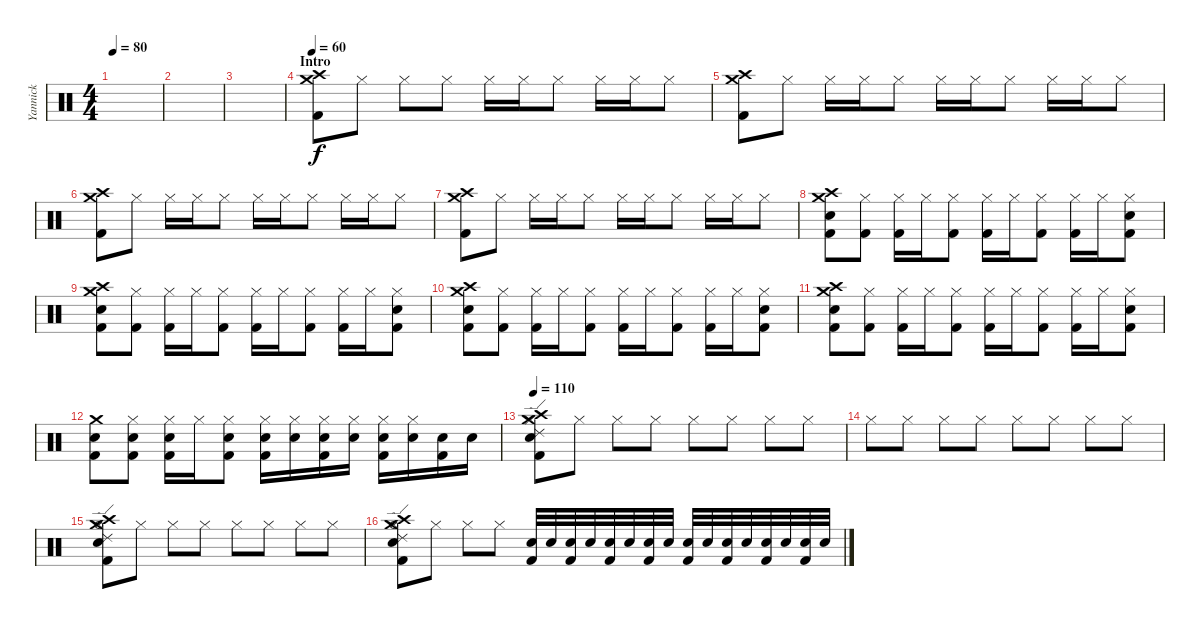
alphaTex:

\track ("Yannick" "Yannick") {instrument percussion}
\staff {score}
\articulation defaults
\ts (4 4)
\tempo 80
\clef neutral
\ks c
|
|
|
\section ("" "Intro")
\tempo 60
("Crash medium (hit)" "Crash high (hit)" "Kick (hit) 2").8 "Hi-Hat (closed)".8 "Hi-Hat (closed)".8 "Hi-Hat (closed)".8 "Hi-Hat (closed)".16 "Hi-Hat (closed)".16 "Hi-Hat (closed)".8 "Hi-Hat (closed)".16 "Hi-Hat (closed)".16 "Hi-Hat (closed)".8 |
("Crash medium (hit)" "Crash high (hit)" "Kick (hit) 2").8 "Hi-Hat (closed)".8 "Hi-Hat (closed)".16 "Hi-Hat (closed)".16 "Hi-Hat (closed)".8 "Hi-Hat (closed)".16 "Hi-Hat (closed)".16 "Hi-Hat (closed)".8 "Hi-Hat (closed)".16 "Hi-Hat (closed)".16 "Hi-Hat (closed)".8 |
("Crash medium (hit)" "Crash high (hit)" "Kick (hit) 2").8 "Hi-Hat (closed)".8 "Hi-Hat (closed)".16 "Hi-Hat (closed)".16 "Hi-Hat (closed)".8 "Hi-Hat (closed)".16 "Hi-Hat (closed)".16 "Hi-Hat (closed)".8 "Hi-Hat (closed)".16 "Hi-Hat (closed)".16 "Hi-Hat (closed)".8 |
("Crash medium (hit)" "Crash high (hit)" "Kick (hit) 2").8 "Hi-Hat (closed)".8 "Hi-Hat (closed)".16 "Hi-Hat (closed)".16 "Hi-Hat (closed)".8 "Hi-Hat (closed)".16 "Hi-Hat (closed)".16 "Hi-Hat (closed)".8 "Hi-Hat (closed)".16 "Hi-Hat (closed)".16 "Hi-Hat (closed)".8 |
("Crash medium (hit)" "Crash high (hit)" "Electric Snare (hit)" "Kick (hit) 2").8 ("Hi-Hat (closed)" "Kick (hit) 2").8 ("Hi-Hat (closed)" "Kick (hit) 2").16 "Hi-Hat (closed)".16 ("Hi-Hat (closed)" "Kick (hit) 2").8 ("Hi-Hat (closed)" "Kick (hit) 2").16 "Hi-Hat (closed)".16 ("Hi-Hat (closed)" "Kick (hit) 2").8 ("Hi-Hat (closed)" "Kick (hit) 2").16 "Hi-Hat (closed)".16 ("Hi-Hat (closed)" "Electric Snare (hit)" "Kick (hit) 2").8 |
("Crash medium (hit)" "Crash high (hit)" "Electric Snare (hit)" "Kick (hit) 2").8 ("Hi-Hat (closed)" "Kick (hit) 2").8 ("Hi-Hat (closed)" "Kick (hit) 2").16 "Hi-Hat (closed)".16 ("Hi-Hat (closed)" "Kick (hit) 2").8 ("Hi-Hat (closed)" "Kick (hit) 2").16 "Hi-Hat (closed)".16 ("Hi-Hat (closed)" "Kick (hit) 2").8 ("Hi-Hat (closed)" "Kick (hit) 2").16 "Hi-Hat (closed)".16 ("Hi-Hat (closed)" "Electric Snare (hit)" "Kick (hit) 2").8 |
("Crash medium (hit)" "Crash high (hit)" "Electric Snare (hit)" "Kick (hit) 2").8 ("Hi-Hat (closed)" "Kick (hit) 2").8 ("Hi-Hat (closed)" "Kick (hit) 2").16 "Hi-Hat (closed)".16 ("Hi-Hat (closed)" "Kick (hit) 2").8 ("Hi-Hat (closed)" "Kick (hit) 2").16 "Hi-Hat (closed)".16 ("Hi-Hat (closed)" "Kick (hit) 2").8 ("Hi-Hat (closed)" "Kick (hit) 2").16 "Hi-Hat (closed)".16 ("Hi-Hat (closed)" "Electric Snare (hit)" "Kick (hit) 2").8 |
("Crash medium (hit)" "Crash high (hit)" "Electric Snare (hit)" "Kick (hit) 2").8 ("Hi-Hat (closed)" "Kick (hit) 2").8 ("Hi-Hat (closed)" "Kick (hit) 2").16 "Hi-Hat (closed)".16 ("Hi-Hat (closed)" "Kick (hit) 2").8 ("Hi-Hat (closed)" "Kick (hit) 2").16 "Hi-Hat (closed)".16 ("Hi-Hat (closed)" "Kick (hit) 2").8 ("Hi-Hat (closed)" "Kick (hit) 2").16 "Hi-Hat (closed)".16 ("Hi-Hat (closed)" "Electric Snare (hit)" "Kick (hit) 2").8 |
("Crash medium (hit)" "Electric Snare (hit)" "Kick (hit) 2").8 ("Hi-Hat (closed)" "Electric Snare (hit)" "Kick (hit) 2").8 ("Hi-Hat (closed)" "Electric Snare (hit)" "Kick (hit) 2").16 "Hi-Hat (closed)".16 ("Hi-Hat (closed)" "Electric Snare (hit)" "Kick (hit) 2").8 ("Hi-Hat (closed)" "Electric Snare (hit)" "Kick (hit) 2").16 ("Hi-Hat (closed)" "Electric Snare (hit)").16 ("Hi-Hat (closed)" "Electric Snare (hit)" "Kick (hit) 2").16 ("Hi-Hat (closed)" "Electric Snare (hit)").16 ("Hi-Hat (closed)" "Electric Snare (hit)" "Kick (hit) 2").16 ("Hi-Hat (closed)" "Electric Snare (hit)").16 ("Electric Snare (hit)" "Kick (hit) 2").16 "Electric Snare (hit)".16 |
\tempo 130
\tempo 110
("Hi-Hat (closed)" "Crash high (hit)" "Ride (edge) 2" "Crash medium (hit)" "Electric Snare (hit)" "Kick (hit) 2").8 "Hi-Hat (closed)".8 "Hi-Hat (closed)".8 "Hi-Hat (closed)".8 "Hi-Hat (closed)".8 "Hi-Hat (closed)".8 "Hi-Hat (closed)".8 "Hi-Hat (closed)".8 |
"Hi-Hat (closed)".8 "Hi-Hat (closed)".8 "Hi-Hat (closed)".8 "Hi-Hat (closed)".8 "Hi-Hat (closed)".8 "Hi-Hat (closed)".8 "Hi-Hat (closed)".8 "Hi-Hat (closed)".8 |
("Hi-Hat (open)" "Crash high (hit)" "Crash medium (hit)" "Ride (edge) 2" "Electric Snare (hit)" "Kick (hit) 2").8 "Hi-Hat (closed)".8 "Hi-Hat (closed)".8 "Hi-Hat (closed)".8 "Hi-Hat (closed)".8 "Hi-Hat (closed)".8 "Hi-Hat (closed)".8 "Hi-Hat (closed)".8 |
("Hi-Hat (open)" "Crash medium (hit)" "Crash high (hit)" "Ride (edge) 2" "Electric Snare (hit)" "Kick (hit) 2").8 "Hi-Hat (closed)".8 "Hi-Hat (closed)".8 "Hi-Hat (closed)".8 ("Electric Snare (hit)" "Kick (hit) 2").32 "Electric Snare (hit)".32 ("Electric Snare (hit)" "Kick (hit) 2").32 "Electric Snare (hit)".32 ("Electric Snare (hit)" "Kick (hit) 2").32 "Electric Snare (hit)".32 ("Electric Snare (hit)" "Kick (hit) 2").32 "Electric Snare (hit)".32 ("Electric Snare (hit)" "Kick (hit) 2").32 "Electric Snare (hit)".32 ("Electric Snare (hit)" "Kick (hit) 2").32 "Electric Snare (hit)".32 ("Electric Snare (hit)" "Kick (hit) 2").32 "Electric Snare (hit)".32 ("Electric Snare (hit)" "Kick (hit) 2").32 "Electric Snare (hit)".32
